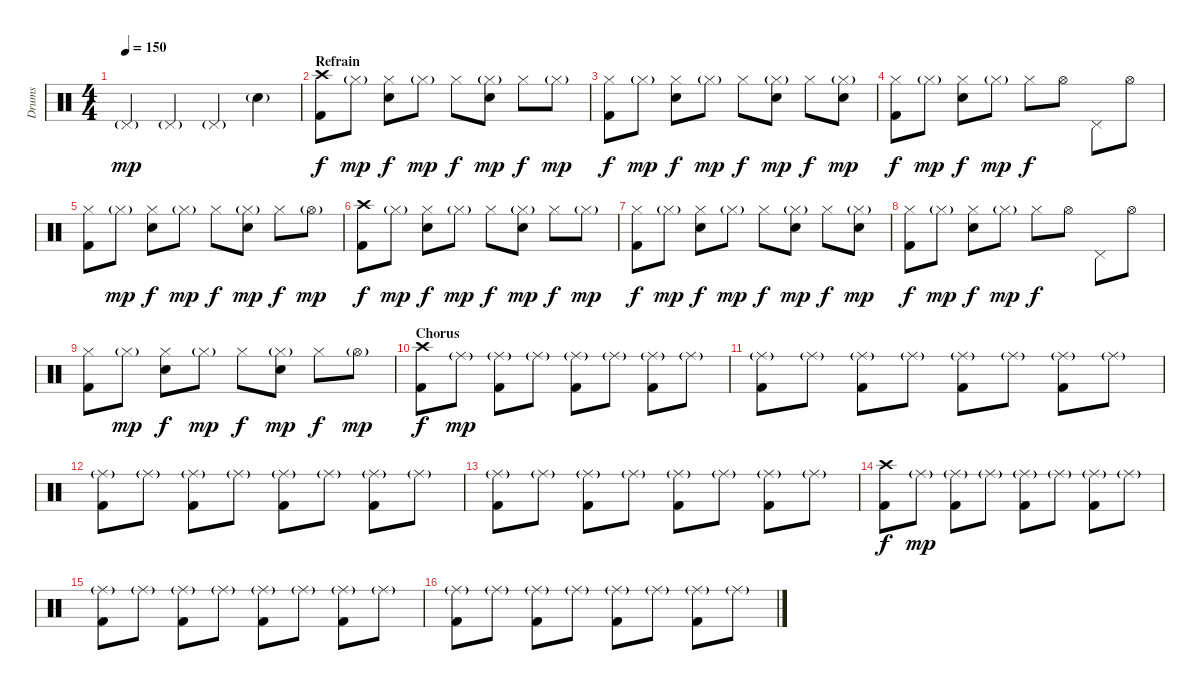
\track ("Drums" "Drums") {instrument percussion}
\staff {score}
\articulation defaults
\ts (4 4)
\tempo 150
\clef neutral
\ks c "Pedal Hi-Hat (hit)"{g}.4{dy mp} "Pedal Hi-Hat (hit)"{g}.4 "Pedal Hi-Hat (hit)"{g}.4 "Electric Snare (hit)"{g}.4
|
\section ("" "Refrain")
("Crash high (hit)" "Kick (hit) 2").8{dy f} "Hi-Hat (closed)"{g}.8{dy mp} ("Hi-Hat (closed)" "Electric Snare (hit)").8{dy f} "Hi-Hat (closed)"{g}.8{dy mp} "Hi-Hat (closed)".8{dy f} ("Hi-Hat (closed)"{g} "Electric Snare (hit)").8{dy mp} "Hi-Hat (closed)".8{dy f} "Hi-Hat (closed)"{g}.8{dy mp} |
("Hi-Hat (closed)" "Kick (hit) 2").8{dy f} "Hi-Hat (closed)"{g}.8{dy mp} ("Hi-Hat (closed)" "Electric Snare (hit)").8{dy f} "Hi-Hat (closed)"{g}.8{dy mp} "Hi-Hat (closed)".8{dy f} ("Hi-Hat (closed)"{g} "Electric Snare (hit)").8{dy mp} "Hi-Hat (closed)".8{dy f} ("Hi-Hat (closed)"{g} "Electric Snare (hit)").8{dy mp} |
("Hi-Hat (closed)" "Kick (hit) 2").8{dy f} "Hi-Hat (closed)"{g}.8{dy mp} ("Hi-Hat (closed)" "Electric Snare (hit)").8{dy f} "Hi-Hat (closed)"{g}.8{dy mp} "Hi-Hat (closed)".8{dy f} "Hi-Hat (open)".8 "Pedal Hi-Hat (hit)".8 "Hi-Hat (open)".8 |
("Hi-Hat (closed)" "Kick (hit) 2").8 "Hi-Hat (closed)"{g}.8{dy mp} ("Hi-Hat (closed)" "Electric Snare (hit)").8{dy f} "Hi-Hat (closed)"{g}.8{dy mp} "Hi-Hat (closed)".8{dy f} ("Hi-Hat (closed)"{g} "Electric Snare (hit)").8{dy mp} "Hi-Hat (closed)".8{dy f} "Hi-Hat (open)"{g}.8{dy mp} |
("Crash high (hit)" "Kick (hit) 2").8{dy f} "Hi-Hat (closed)"{g}.8{dy mp} ("Hi-Hat (closed)" "Electric Snare (hit)").8{dy f} "Hi-Hat (closed)"{g}.8{dy mp} "Hi-Hat (closed)".8{dy f} ("Hi-Hat (closed)"{g} "Electric Snare (hit)").8{dy mp} "Hi-Hat (closed)".8{dy f} "Hi-Hat (closed)"{g}.8{dy mp} |
("Hi-Hat (closed)" "Kick (hit) 2").8{dy f} "Hi-Hat (closed)"{g}.8{dy mp} ("Hi-Hat (closed)" "Electric Snare (hit)").8{dy f} "Hi-Hat (closed)"{g}.8{dy mp} "Hi-Hat (closed)".8{dy f} ("Hi-Hat (closed)"{g} "Electric Snare (hit)").8{dy mp} "Hi-Hat (closed)".8{dy f} ("Hi-Hat (closed)"{g} "Electric Snare (hit)").8{dy mp} |
("Hi-Hat (closed)" "Kick (hit) 2").8{dy f} "Hi-Hat (closed)"{g}.8{dy mp} ("Hi-Hat (closed)" "Electric Snare (hit)").8{dy f} "Hi-Hat (closed)"{g}.8{dy mp} "Hi-Hat (closed)".8{dy f} "Hi-Hat (open)".8 "Pedal Hi-Hat (hit)".8 "Hi-Hat (open)".8 |
("Hi-Hat (closed)" "Kick (hit) 2").8 "Hi-Hat (closed)"{g}.8{dy mp} ("Hi-Hat (closed)" "Electric Snare (hit)").8{dy f} "Hi-Hat (closed)"{g}.8{dy mp} "Hi-Hat (closed)".8{dy f} ("Hi-Hat (closed)"{g} "Electric Snare (hit)").8{dy mp} "Hi-Hat (closed)".8{dy f} "Hi-Hat (open)"{g}.8{dy mp} |
\section ("" "Chorus")
("Crash high (hit)" "Kick (hit) 2").8{dy f} "Ride (middle)"{g}.8{dy mp} ("Ride (middle)"{g} "Kick (hit) 2").8 "Ride (middle)"{g}.8 ("Ride (middle)"{g} "Kick (hit) 2").8 "Ride (middle)"{g}.8 ("Ride (middle)"{g} "Kick (hit) 2").8 "Ride (middle)"{g}.8 |
("Ride (middle)"{g} "Kick (hit) 2").8 "Ride (middle)"{g}.8 ("Ride (middle)"{g} "Kick (hit) 2").8 "Ride (middle)"{g}.8 ("Ride (middle)"{g} "Kick (hit) 2").8 "Ride (middle)"{g}.8 ("Ride (middle)"{g} "Kick (hit) 2").8 "Ride (middle)"{g}.8 |
("Ride (middle)"{g} "Kick (hit) 2").8 "Ride (middle)"{g}.8 ("Ride (middle)"{g} "Kick (hit) 2").8 "Ride (middle)"{g}.8 ("Ride (middle)"{g} "Kick (hit) 2").8 "Ride (middle)"{g}.8 ("Ride (middle)"{g} "Kick (hit) 2").8 "Ride (middle)"{g}.8 |
("Ride (middle)"{g} "Kick (hit) 2").8 "Ride (middle)"{g}.8 ("Ride (middle)"{g} "Kick (hit) 2").8 "Ride (middle)"{g}.8 ("Ride (middle)"{g} "Kick (hit) 2").8 "Ride (middle)"{g}.8 ("Ride (middle)"{g} "Kick (hit) 2").8 "Ride (middle)"{g}.8 |
("Crash high (hit)" "Kick (hit) 2").8{dy f} "Ride (middle)"{g}.8{dy mp} ("Ride (middle)"{g} "Kick (hit) 2").8 "Ride (middle)"{g}.8 ("Ride (middle)"{g} "Kick (hit) 2").8 "Ride (middle)"{g}.8 ("Ride (middle)"{g} "Kick (hit) 2").8 "Ride (middle)"{g}.8 |
("Ride (middle)"{g} "Kick (hit) 2").8 "Ride (middle)"{g}.8 ("Ride (middle)"{g} "Kick (hit) 2").8 "Ride (middle)"{g}.8 ("Ride (middle)"{g} "Kick (hit) 2").8 "Ride (middle)"{g}.8 ("Ride (middle)"{g} "Kick (hit) 2").8 "Ride (middle)"{g}.8 |
("Ride (middle)"{g} "Kick (hit) 2").8 "Ride (middle)"{g}.8 ("Ride (middle)"{g} "Kick (hit) 2").8 "Ride (middle)"{g}.8 ("Ride (middle)"{g} "Kick (hit) 2").8 "Ride (middle)"{g}.8 ("Ride (middle)"{g} "Kick (hit) 2").8 "Ride (middle)"{g}.8
